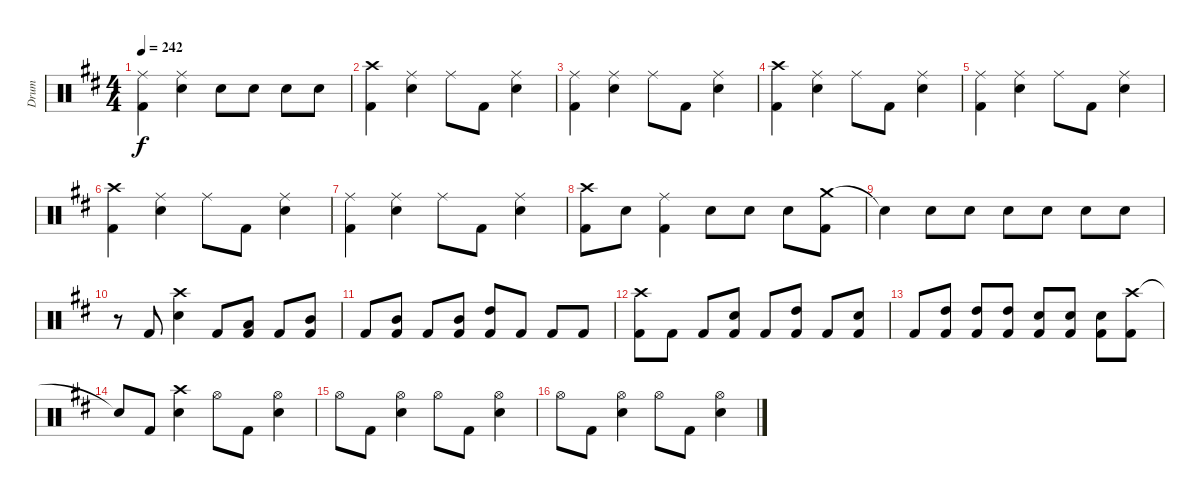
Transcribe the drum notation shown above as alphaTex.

\track ("Drum" "Drum") {instrument percussion}
\staff {score}
\articulation defaults
\ts (4 4)
\tempo 242
\clef neutral
\ks d
("Ride (middle)" "Kick (hit) 2").4{dy f} ("Ride (middle)" "Snare (hit) 2").4 "Snare (hit) 2".8 "Snare (hit) 2".8 "Snare (hit) 2".8 "Snare (hit) 2".8 |
("Crash high (hit)" "Kick (hit) 2").4 ("Ride (middle)" "Snare (hit) 2").4 "Ride (middle)".8 "Kick (hit) 2".8 ("Ride (middle)" "Snare (hit) 2").4 |
("Ride (middle)" "Kick (hit) 2").4 ("Ride (middle)" "Snare (hit) 2").4 "Ride (middle)".8 "Kick (hit) 2".8 ("Ride (middle)" "Snare (hit) 2").4 |
("Crash high (hit)" "Kick (hit) 2").4 ("Ride (middle)" "Snare (hit) 2").4 "Ride (middle)".8 "Kick (hit) 2".8 ("Ride (middle)" "Snare (hit) 2").4 |
("Ride (middle)" "Kick (hit) 2").4 ("Ride (middle)" "Snare (hit) 2").4 "Ride (middle)".8 "Kick (hit) 2".8 ("Ride (middle)" "Snare (hit) 2").4 |
("Crash high (hit)" "Kick (hit) 2").4 ("Ride (middle)" "Snare (hit) 2").4 "Ride (middle)".8 "Kick (hit) 2".8 ("Ride (middle)" "Snare (hit) 2").4 |
("Ride (middle)" "Kick (hit) 2").4 ("Ride (middle)" "Snare (hit) 2").4 "Ride (middle)".8 "Kick (hit) 2".8 ("Ride (middle)" "Snare (hit) 2").4 |
("Crash high (hit)" "Kick (hit) 2").8 "Snare (hit) 2".8 ("Ride (middle)" "Kick (hit) 2").4 "Snare (hit) 2".8 "Snare (hit) 2".8 "Snare (hit) 2".8 ("Crash medium (hit)" "Kick (hit) 2").8 |
"Snare (hit)"{t}.4 "Snare (hit) 2".8 "Snare (hit) 2".8 "Snare (hit) 2".8 "Snare (hit) 2".8 "Snare (hit) 2".8 "Snare (hit) 2".8 |
r.8 "Kick (hit) 2".8 ("Crash high (hit)" "Snare (hit) 2").4 "Kick (hit) 2".8 ("Low Tom (hit)" "Kick (hit) 2").8 "Kick (hit) 2".8 ("Mid Tom (hit)" "Kick (hit) 2").8 |
"Kick (hit) 2".8 ("Mid Tom (hit)" "Kick (hit) 2").8 "Kick (hit) 2".8 ("Mid Tom (hit)" "Kick (hit) 2").8 ("High Tom (hit)" "Kick (hit) 2").8 "Kick (hit) 2".8 "Kick (hit) 2".8 "Kick (hit) 2".8 |
("Crash high (hit)" "Kick (hit) 2").8 "Kick (hit) 2".8 "Kick (hit) 2".8 ("Snare (hit) 2" "Kick (hit) 2").8 "Kick (hit) 2".8 ("High Tom (hit)" "Kick (hit) 2").8 "Kick (hit) 2".8 ("Snare (hit) 2" "Kick (hit) 2").8 |
"Kick (hit) 2".8 ("High Tom (hit)" "Kick (hit) 2").8 ("High Tom (hit)" "Kick (hit) 2").8 ("High Tom (hit)" "Kick (hit) 2").8 ("Snare (hit) 2" "Kick (hit) 2").8 ("Snare (hit) 2" "Kick (hit) 2").8 ("Snare (hit) 2" "Kick (hit) 2").8 ("Crash high (hit)" "Kick (hit) 2").8 |
"Snare (hit)"{t}.8 "Kick (hit) 2".8 ("Crash high (hit)" "Snare (hit) 2").4 "Hi-Hat (open)".8 "Kick (hit) 2".8 ("Hi-Hat (open)" "Snare (hit) 2").4 |
"Hi-Hat (open)".8 "Kick (hit) 2".8 ("Hi-Hat (open)" "Snare (hit) 2").4 "Hi-Hat (open)".8 "Kick (hit) 2".8 ("Hi-Hat (open)" "Snare (hit) 2").4 |
"Hi-Hat (open)".8 "Kick (hit) 2".8 ("Hi-Hat (open)" "Snare (hit) 2").4 "Hi-Hat (open)".8 "Kick (hit) 2".8 ("Hi-Hat (open)" "Snare (hit) 2").4
